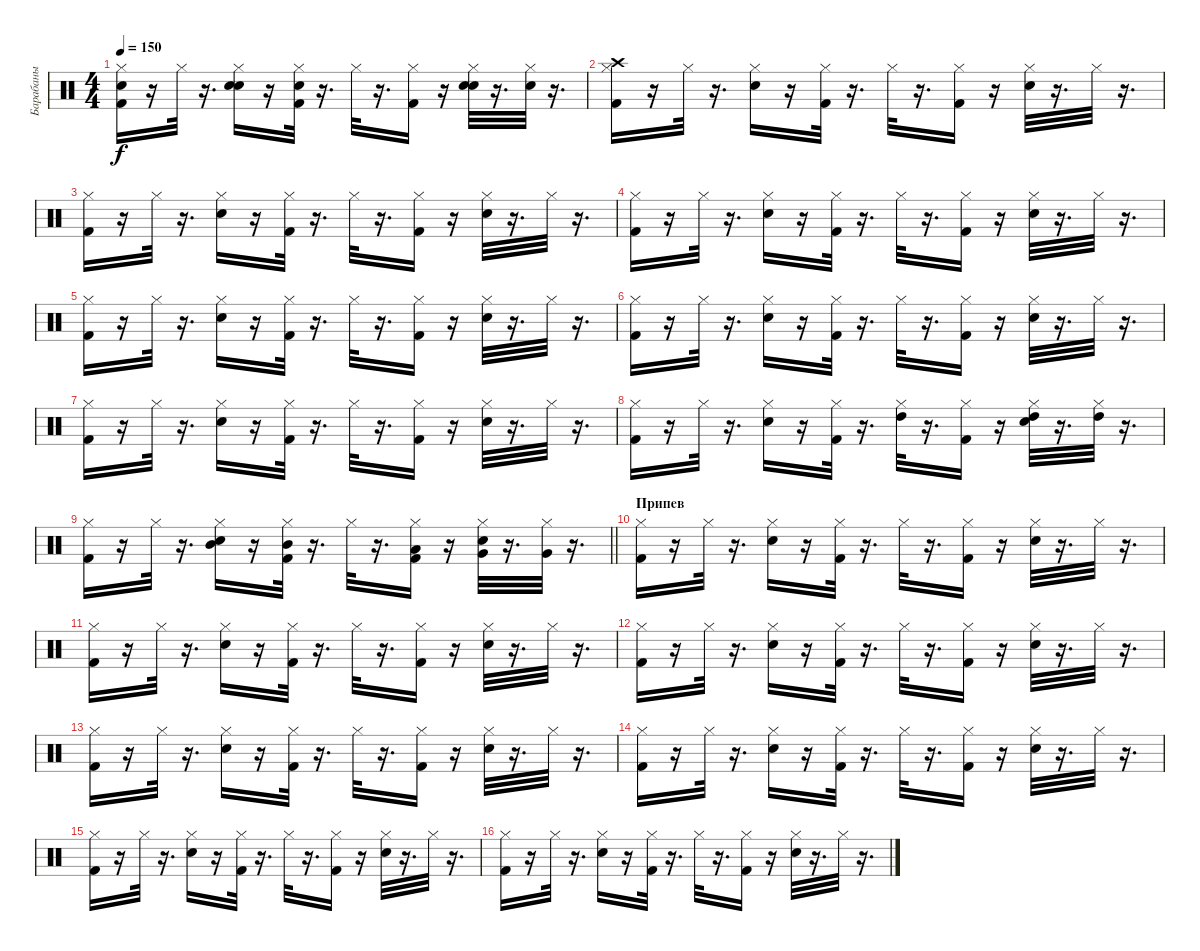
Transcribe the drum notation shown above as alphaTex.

\track ("Барабаны" "Барабаны") {instrument percussion}
\staff {score}
\articulation defaults
\ts (4 4)
\tempo 150
\clef neutral
\ks c
("Hi-Hat (closed)" "Kick (hit) 2" "Hand Clap (hit)").16{dy f} r.16 "Hi-Hat (closed)".32 r.16{d} ("Electric Snare (hit)" "Hand Clap (hit)" "Hi-Hat (closed)").16 r.16 ("Kick (hit) 2" "Hi-Hat (closed)" "Hand Clap (hit)").32 r.16{d} "Hi-Hat (closed)".32 r.16{d} ("Kick (hit) 2" "Hi-Hat (closed)").16 r.16 ("Electric Snare (hit)" "Hi-Hat (closed)" "Hand Clap (hit)").32 r.16{d} ("Hi-Hat (closed)" "Hand Clap (hit)").32 r.16{d} |
("Crash high (hit)" "Hi-Hat (closed)" "Kick (hit) 2").16 r.16 "Hi-Hat (closed)".32 r.16{d} ("Electric Snare (hit)" "Hi-Hat (closed)").16 r.16 ("Hi-Hat (closed)" "Kick (hit) 2").32 r.16{d} "Hi-Hat (closed)".32 r.16{d} ("Kick (hit) 2" "Hi-Hat (closed)").16 r.16 ("Electric Snare (hit)" "Hi-Hat (closed)").32 r.16{d} "Hi-Hat (closed)".32 r.16{d} |
("Kick (hit) 2" "Hi-Hat (closed)").16 r.16 "Hi-Hat (closed)".32 r.16{d} ("Electric Snare (hit)" "Hi-Hat (closed)").16 r.16 ("Kick (hit) 2" "Hi-Hat (closed)").32 r.16{d} "Hi-Hat (closed)".32 r.16{d} ("Kick (hit) 2" "Hi-Hat (closed)").16 r.16 ("Electric Snare (hit)" "Hi-Hat (closed)").32 r.16{d} "Hi-Hat (closed)".32 r.16{d} |
("Kick (hit) 2" "Hi-Hat (closed)").16 r.16 "Hi-Hat (closed)".32 r.16{d} ("Electric Snare (hit)" "Hi-Hat (closed)").16 r.16 ("Kick (hit) 2" "Hi-Hat (closed)").32 r.16{d} "Hi-Hat (closed)".32 r.16{d} ("Kick (hit) 2" "Hi-Hat (closed)").16 r.16 ("Electric Snare (hit)" "Hi-Hat (closed)").32 r.16{d} "Hi-Hat (closed)".32 r.16{d} |
("Kick (hit) 2" "Hi-Hat (closed)").16 r.16 "Hi-Hat (closed)".32 r.16{d} ("Electric Snare (hit)" "Hi-Hat (closed)").16 r.16 ("Kick (hit) 2" "Hi-Hat (closed)").32 r.16{d} "Hi-Hat (closed)".32 r.16{d} ("Kick (hit) 2" "Hi-Hat (closed)").16 r.16 ("Electric Snare (hit)" "Hi-Hat (closed)").32 r.16{d} "Hi-Hat (closed)".32 r.16{d} |
("Hi-Hat (closed)" "Kick (hit) 2").16 r.16 "Hi-Hat (closed)".32 r.16{d} ("Hi-Hat (closed)" "Electric Snare (hit)").16 r.16 ("Hi-Hat (closed)" "Kick (hit) 2").32 r.16{d} "Hi-Hat (closed)".32 r.16{d} ("Kick (hit) 2" "Hi-Hat (closed)").16 r.16 ("Electric Snare (hit)" "Hi-Hat (closed)").32 r.16{d} "Hi-Hat (closed)".32 r.16{d} |
("Kick (hit) 2" "Hi-Hat (closed)").16 r.16 "Hi-Hat (closed)".32 r.16{d} ("Electric Snare (hit)" "Hi-Hat (closed)").16 r.16 ("Kick (hit) 2" "Hi-Hat (closed)").32 r.16{d} "Hi-Hat (closed)".32 r.16{d} ("Kick (hit) 2" "Hi-Hat (closed)").16 r.16 ("Electric Snare (hit)" "Hi-Hat (closed)").32 r.16{d} "Hi-Hat (closed)".32 r.16{d} |
("Kick (hit) 2" "Hi-Hat (closed)").16 r.16 "Hi-Hat (closed)".32 r.16{d} ("Electric Snare (hit)" "Hi-Hat (closed)").16 r.16 ("Kick (hit) 2" "Hi-Hat (closed)").32 r.16{d} ("Hi-Hat (closed)" "High Tom (hit)").32 r.16{d} ("Kick (hit) 2" "Hi-Hat (closed)").16 r.16 ("Electric Snare (hit)" "High Tom (hit)" "Hi-Hat (closed)").32 r.16{d} ("High Tom (hit)" "Hi-Hat (closed)").32 r.16{d} |
\barLineRight lightlight
("Kick (hit) 2" "Hi-Hat (closed)").16 r.16 "Hi-Hat (closed)".32 r.16{d} ("Electric Snare (hit)" "Hi-Hat (closed)" "Mid Tom (hit)").16 r.16 ("Kick (hit) 2" "Hi-Hat (closed)" "Mid Tom (hit)").32 r.16{d} "Hi-Hat (closed)".32 r.16{d} ("Kick (hit) 2" "Hi-Hat (closed)" "Low Tom (hit)").16 r.16 ("Electric Snare (hit)" "Very Low Tom (hit)" "Hi-Hat (closed)").32 r.16{d} ("Very Low Tom (hit)" "Hi-Hat (closed)").32 r.16{d} |
\section ("" "Припев")
("Hi-Hat (closed)" "Kick (hit) 2").16 r.16 "Hi-Hat (closed)".32 r.16{d} ("Electric Snare (hit)" "Hi-Hat (closed)").16 r.16 ("Hi-Hat (closed)" "Kick (hit) 2").32 r.16{d} "Hi-Hat (closed)".32 r.16{d} ("Hi-Hat (closed)" "Kick (hit) 2").16 r.16 ("Hi-Hat (closed)" "Electric Snare (hit)").32 r.16{d} "Hi-Hat (closed)".32 r.16{d} |
("Kick (hit) 2" "Hi-Hat (closed)").16 r.16 "Hi-Hat (closed)".32 r.16{d} ("Electric Snare (hit)" "Hi-Hat (closed)").16 r.16 ("Kick (hit) 2" "Hi-Hat (closed)").32 r.16{d} "Hi-Hat (closed)".32 r.16{d} ("Kick (hit) 2" "Hi-Hat (closed)").16 r.16 ("Electric Snare (hit)" "Hi-Hat (closed)").32 r.16{d} "Hi-Hat (closed)".32 r.16{d} |
("Kick (hit) 2" "Hi-Hat (closed)").16 r.16 "Hi-Hat (closed)".32 r.16{d} ("Electric Snare (hit)" "Hi-Hat (closed)").16 r.16 ("Kick (hit) 2" "Hi-Hat (closed)").32 r.16{d} "Hi-Hat (closed)".32 r.16{d} ("Kick (hit) 2" "Hi-Hat (closed)").16 r.16 ("Electric Snare (hit)" "Hi-Hat (closed)").32 r.16{d} "Hi-Hat (closed)".32 r.16{d} |
("Kick (hit) 2" "Hi-Hat (closed)").16 r.16 "Hi-Hat (closed)".32 r.16{d} ("Electric Snare (hit)" "Hi-Hat (closed)").16 r.16 ("Kick (hit) 2" "Hi-Hat (closed)").32 r.16{d} "Hi-Hat (closed)".32 r.16{d} ("Kick (hit) 2" "Hi-Hat (closed)").16 r.16 ("Electric Snare (hit)" "Hi-Hat (closed)").32 r.16{d} "Hi-Hat (closed)".32 r.16{d} |
("Hi-Hat (closed)" "Kick (hit) 2").16 r.16 "Hi-Hat (closed)".32 r.16{d} ("Electric Snare (hit)" "Hi-Hat (closed)").16 r.16 ("Hi-Hat (closed)" "Kick (hit) 2").32 r.16{d} "Hi-Hat (closed)".32 r.16{d} ("Hi-Hat (closed)" "Kick (hit) 2").16 r.16 ("Electric Snare (hit)" "Hi-Hat (closed)").32 r.16{d} "Hi-Hat (closed)".32 r.16{d} |
("Hi-Hat (closed)" "Kick (hit) 2").16 r.16 "Hi-Hat (closed)".32 r.16{d} ("Electric Snare (hit)" "Hi-Hat (closed)").16 r.16 ("Kick (hit) 2" "Hi-Hat (closed)").32 r.16{d} "Hi-Hat (closed)".32 r.16{d} ("Kick (hit) 2" "Hi-Hat (closed)").16 r.16 ("Electric Snare (hit)" "Hi-Hat (closed)").32 r.16{d} "Hi-Hat (closed)".32 r.16{d} |
("Kick (hit) 2" "Hi-Hat (closed)").16 r.16 "Hi-Hat (closed)".32 r.16{d} ("Electric Snare (hit)" "Hi-Hat (closed)").16 r.16 ("Kick (hit) 2" "Hi-Hat (closed)").32 r.16{d} "Hi-Hat (closed)".32 r.16{d} ("Kick (hit) 2" "Hi-Hat (closed)").16 r.16 ("Electric Snare (hit)" "Hi-Hat (closed)").32 r.16{d} "Hi-Hat (closed)".32 r.16{d}
